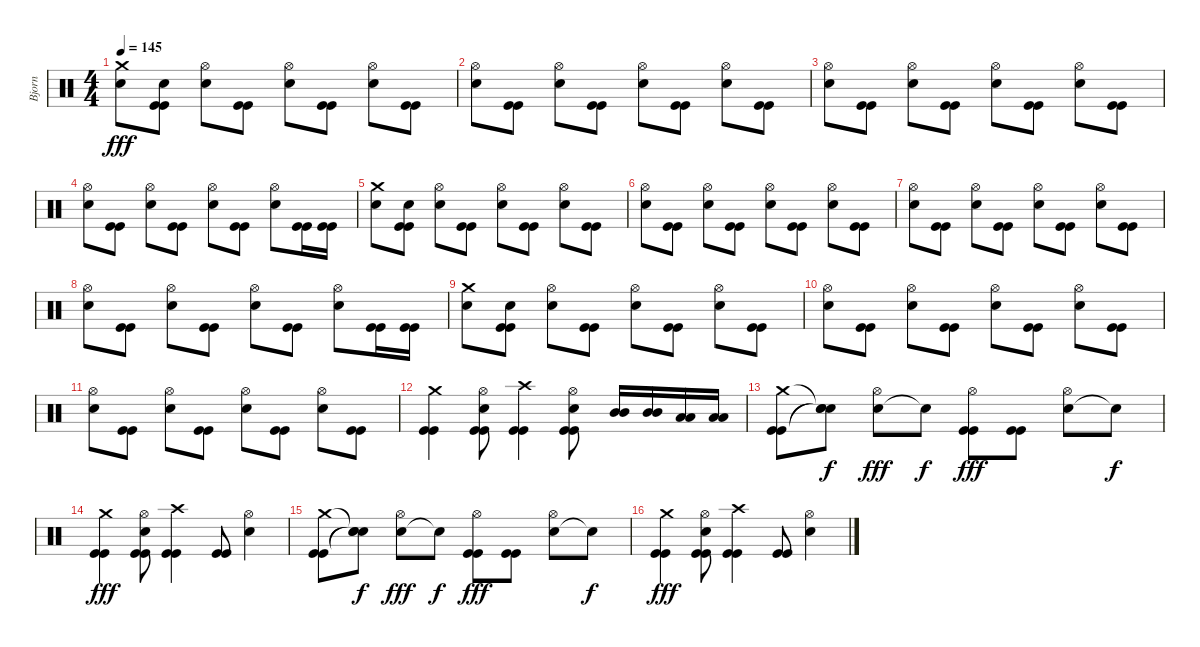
\track ("Bjorn" "Bjorn") {instrument percussion}
\staff {score}
\articulation defaults
\ts (4 4)
\tempo 145
\clef neutral
\ks c
("Snare (hit) 2" "Crash medium (hit)").8{dy fff} ("Kick (hit)" "Kick (hit)" "Snare (hit)").8 ("Snare (hit) 2" "Hi-Hat (open)").8 ("Kick (hit)" "Kick (hit)").8 ("Snare (hit) 2" "Hi-Hat (open)").8 ("Kick (hit)" "Kick (hit)").8 ("Snare (hit) 2" "Hi-Hat (open)").8 ("Kick (hit)" "Kick (hit)").8 |
("Snare (hit) 2" "Hi-Hat (open)").8 ("Kick (hit)" "Kick (hit)").8 ("Snare (hit) 2" "Hi-Hat (open)").8 ("Kick (hit)" "Kick (hit)").8 ("Snare (hit) 2" "Hi-Hat (open)").8 ("Kick (hit)" "Kick (hit)").8 ("Snare (hit) 2" "Hi-Hat (open)").8 ("Kick (hit)" "Kick (hit)").8 |
("Snare (hit) 2" "Hi-Hat (open)").8 ("Kick (hit)" "Kick (hit)").8 ("Snare (hit) 2" "Hi-Hat (open)").8 ("Kick (hit)" "Kick (hit)").8 ("Snare (hit) 2" "Hi-Hat (open)").8 ("Kick (hit)" "Kick (hit)").8 ("Snare (hit) 2" "Hi-Hat (open)").8 ("Kick (hit)" "Kick (hit)").8 |
("Snare (hit) 2" "Hi-Hat (open)").8 ("Kick (hit)" "Kick (hit)").8 ("Snare (hit) 2" "Hi-Hat (open)").8 ("Kick (hit)" "Kick (hit)").8 ("Snare (hit) 2" "Hi-Hat (open)").8 ("Kick (hit)" "Kick (hit)").8 ("Snare (hit) 2" "Hi-Hat (open)").8 ("Kick (hit)" "Kick (hit)").16 ("Kick (hit)" "Kick (hit)").16 |
("Snare (hit) 2" "Crash medium (hit)").8 ("Kick (hit)" "Kick (hit)" "Snare (hit)").8 ("Snare (hit) 2" "Hi-Hat (open)").8 ("Kick (hit)" "Kick (hit)").8 ("Snare (hit) 2" "Hi-Hat (open)").8 ("Kick (hit)" "Kick (hit)").8 ("Snare (hit) 2" "Hi-Hat (open)").8 ("Kick (hit)" "Kick (hit)").8 |
("Snare (hit) 2" "Hi-Hat (open)").8 ("Kick (hit)" "Kick (hit)").8 ("Snare (hit) 2" "Hi-Hat (open)").8 ("Kick (hit)" "Kick (hit)").8 ("Snare (hit) 2" "Hi-Hat (open)").8 ("Kick (hit)" "Kick (hit)").8 ("Snare (hit) 2" "Hi-Hat (open)").8 ("Kick (hit)" "Kick (hit)").8 |
("Snare (hit) 2" "Hi-Hat (open)").8 ("Kick (hit)" "Kick (hit)").8 ("Snare (hit) 2" "Hi-Hat (open)").8 ("Kick (hit)" "Kick (hit)").8 ("Snare (hit) 2" "Hi-Hat (open)").8 ("Kick (hit)" "Kick (hit)").8 ("Snare (hit) 2" "Hi-Hat (open)").8 ("Kick (hit)" "Kick (hit)").8 |
("Snare (hit) 2" "Hi-Hat (open)").8 ("Kick (hit)" "Kick (hit)").8 ("Snare (hit) 2" "Hi-Hat (open)").8 ("Kick (hit)" "Kick (hit)").8 ("Snare (hit) 2" "Hi-Hat (open)").8 ("Kick (hit)" "Kick (hit)").8 ("Snare (hit) 2" "Hi-Hat (open)").8 ("Kick (hit)" "Kick (hit)").16 ("Kick (hit)" "Kick (hit)").16 |
("Snare (hit) 2" "Crash medium (hit)").8 ("Kick (hit)" "Kick (hit)" "Snare (hit)").8 ("Snare (hit) 2" "Hi-Hat (open)").8 ("Kick (hit)" "Kick (hit)").8 ("Snare (hit) 2" "Hi-Hat (open)").8 ("Kick (hit)" "Kick (hit)").8 ("Snare (hit) 2" "Hi-Hat (open)").8 ("Kick (hit)" "Kick (hit)").8 |
("Snare (hit) 2" "Hi-Hat (open)").8 ("Kick (hit)" "Kick (hit)").8 ("Snare (hit) 2" "Hi-Hat (open)").8 ("Kick (hit)" "Kick (hit)").8 ("Snare (hit) 2" "Hi-Hat (open)").8 ("Kick (hit)" "Kick (hit)").8 ("Snare (hit) 2" "Hi-Hat (open)").8 ("Kick (hit)" "Kick (hit)").8 |
("Snare (hit) 2" "Hi-Hat (open)").8 ("Kick (hit)" "Kick (hit)").8 ("Snare (hit) 2" "Hi-Hat (open)").8 ("Kick (hit)" "Kick (hit)").8 ("Snare (hit) 2" "Hi-Hat (open)").8 ("Kick (hit)" "Kick (hit)").8 ("Snare (hit) 2" "Hi-Hat (open)").8 ("Kick (hit)" "Kick (hit)").8 |
("Kick (hit)" "Kick (hit)" "Crash medium (hit)").4 ("Kick (hit)" "Kick (hit)" "Snare (hit) 2" "Hi-Hat (open)").8 ("Kick (hit)" "Kick (hit)" "Crash high (hit)").4 ("Kick (hit)" "Kick (hit)" "Snare (hit) 2" "Hi-Hat (open)").8 ("Mid Tom (hit)" "Mid Tom (hit)").16 ("Mid Tom (hit)" "Mid Tom (hit)").16 ("Low Tom (hit)" "Low Tom (hit)").16 ("Low Tom (hit)" "Low Tom (hit)").16 |
("Kick (hit)" "Kick (hit)" "Crash medium (hit)").8 ("Snare (hit)"{t} "Snare (hit)"{t} "Snare (hit)"{t}).8{dy f} ("Snare (hit) 2" "Hi-Hat (open)").8{dy fff} "Snare (hit)"{t}.8{dy f} ("Kick (hit)" "Kick (hit)" "Hi-Hat (open)").8{dy fff} ("Kick (hit)" "Kick (hit)").8 ("Snare (hit) 2" "Hi-Hat (open)").8 "Snare (hit)"{t}.8{dy f} |
("Kick (hit)" "Kick (hit)" "Crash medium (hit)").4{dy fff} ("Kick (hit)" "Kick (hit)" "Snare (hit) 2" "Hi-Hat (open)").8 ("Kick (hit)" "Kick (hit)" "Crash high (hit)").4 ("Kick (hit)" "Kick (hit)").8 ("Snare (hit) 2" "Hi-Hat (open)").4 |
("Kick (hit)" "Kick (hit)" "Crash medium (hit)").8 ("Snare (hit)"{t} "Snare (hit)"{t} "Snare (hit)"{t}).8{dy f} ("Snare (hit) 2" "Hi-Hat (open)").8{dy fff} "Snare (hit)"{t}.8{dy f} ("Kick (hit)" "Kick (hit)" "Hi-Hat (open)").8{dy fff} ("Kick (hit)" "Kick (hit)").8 ("Snare (hit) 2" "Hi-Hat (open)").8 "Snare (hit)"{t}.8{dy f} |
("Kick (hit)" "Kick (hit)" "Crash medium (hit)").4{dy fff} ("Kick (hit)" "Kick (hit)" "Snare (hit) 2" "Hi-Hat (open)").8 ("Kick (hit)" "Kick (hit)" "Crash high (hit)").4 ("Kick (hit)" "Kick (hit)").8 ("Snare (hit) 2" "Hi-Hat (open)").4
